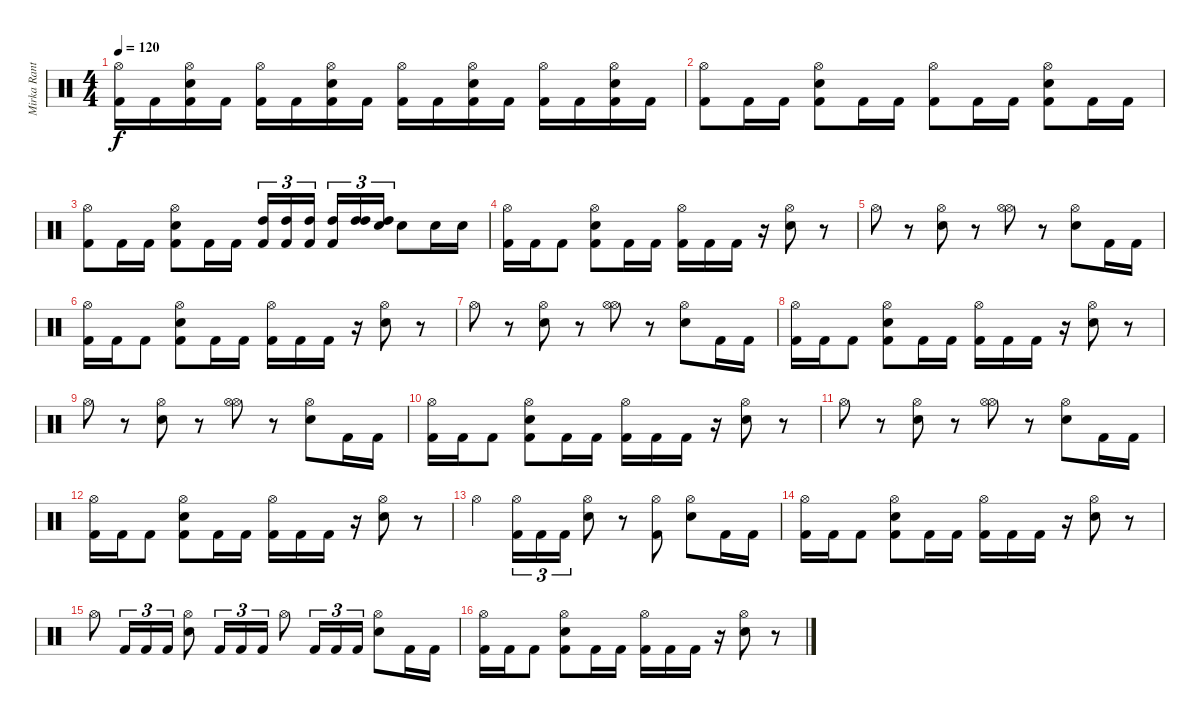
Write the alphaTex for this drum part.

\track ("Mirka Rantanen" "Mirka Rant") {instrument percussion}
\staff {score}
\articulation defaults
\ts (4 4)
\tempo 120
\clef neutral
\ks c
("Hi-Hat (open)" "Kick (hit) 2").16{dy f} "Kick (hit) 2".16 ("Hi-Hat (open)" "Snare (hit) 2" "Kick (hit) 2").16 "Kick (hit) 2".16 ("Hi-Hat (open)" "Kick (hit) 2").16 "Kick (hit) 2".16 ("Hi-Hat (open)" "Snare (hit) 2" "Kick (hit) 2").16 "Kick (hit) 2".16 ("Hi-Hat (open)" "Kick (hit) 2").16 "Kick (hit) 2".16 ("Hi-Hat (open)" "Snare (hit) 2" "Kick (hit) 2").16 "Kick (hit) 2".16 ("Hi-Hat (open)" "Kick (hit) 2").16 "Kick (hit) 2".16 ("Hi-Hat (open)" "Snare (hit) 2" "Kick (hit) 2").16 "Kick (hit) 2".16 |
("Hi-Hat (open)" "Kick (hit) 2").8 "Kick (hit) 2".16 "Kick (hit) 2".16 ("Hi-Hat (open)" "Snare (hit) 2" "Kick (hit) 2").8 "Kick (hit) 2".16 "Kick (hit) 2".16 ("Hi-Hat (open)" "Kick (hit) 2").8 "Kick (hit) 2".16 "Kick (hit) 2".16 ("Hi-Hat (open)" "Snare (hit) 2" "Kick (hit) 2").8 "Kick (hit) 2".16 "Kick (hit) 2".16 |
("Hi-Hat (open)" "Kick (hit) 2").8 "Kick (hit) 2".16 "Kick (hit) 2".16 ("Hi-Hat (open)" "Snare (hit) 2" "Kick (hit) 2").8 "Kick (hit) 2".16 "Kick (hit) 2".16 ("Kick (hit) 2" "High Tom (hit)").16{tu (3 2)} ("Kick (hit) 2" "High Tom (hit)").16{tu (3 2)} ("Kick (hit) 2" "High Tom (hit)").16{tu (3 2)} ("Kick (hit) 2" "High Tom (hit)").16{tu (3 2)} ("High Tom (hit)" "High Tom (hit)").16{tu (3 2)} ("High Tom (hit)" "Snare (hit) 2").16{tu (3 2)} "Snare (hit) 2".8 "Snare (hit) 2".16 "Snare (hit) 2".16 |
("Hi-Hat (open)" "Kick (hit) 2").16 "Kick (hit) 2".16 "Kick (hit) 2".8 ("Hi-Hat (open)" "Snare (hit) 2" "Kick (hit) 2").8 "Kick (hit) 2".16 "Kick (hit) 2".16 ("Hi-Hat (open)" "Kick (hit) 2").16 "Kick (hit) 2".16 "Kick (hit) 2".16 r.16 ("Hi-Hat (open)" "Snare (hit) 2").8 r.8 |
"Hi-Hat (open)".8 r.8 ("Snare (hit) 2" "Hi-Hat (open)").8 r.8 ("Hi-Hat (open)" "Hi-Hat (open)").8 r.8 ("Snare (hit) 2" "Hi-Hat (open)").8 "Kick (hit) 2".16 "Kick (hit) 2".16 |
("Hi-Hat (open)" "Kick (hit) 2").16 "Kick (hit) 2".16 "Kick (hit) 2".8 ("Hi-Hat (open)" "Snare (hit) 2" "Kick (hit) 2").8 "Kick (hit) 2".16 "Kick (hit) 2".16 ("Hi-Hat (open)" "Kick (hit) 2").16 "Kick (hit) 2".16 "Kick (hit) 2".16 r.16 ("Hi-Hat (open)" "Snare (hit) 2").8 r.8 |
"Hi-Hat (open)".8 r.8 ("Snare (hit) 2" "Hi-Hat (open)").8 r.8 ("Hi-Hat (open)" "Hi-Hat (open)").8 r.8 ("Snare (hit) 2" "Hi-Hat (open)").8 "Kick (hit) 2".16 "Kick (hit) 2".16 |
("Hi-Hat (open)" "Kick (hit) 2").16 "Kick (hit) 2".16 "Kick (hit) 2".8 ("Hi-Hat (open)" "Snare (hit) 2" "Kick (hit) 2").8 "Kick (hit) 2".16 "Kick (hit) 2".16 ("Hi-Hat (open)" "Kick (hit) 2").16 "Kick (hit) 2".16 "Kick (hit) 2".16 r.16 ("Hi-Hat (open)" "Snare (hit) 2").8 r.8 |
"Hi-Hat (open)".8 r.8 ("Snare (hit) 2" "Hi-Hat (open)").8 r.8 ("Hi-Hat (open)" "Hi-Hat (open)").8 r.8 ("Snare (hit) 2" "Hi-Hat (open)").8 "Kick (hit) 2".16 "Kick (hit) 2".16 |
("Hi-Hat (open)" "Kick (hit) 2").16 "Kick (hit) 2".16 "Kick (hit) 2".8 ("Hi-Hat (open)" "Snare (hit) 2" "Kick (hit) 2").8 "Kick (hit) 2".16 "Kick (hit) 2".16 ("Hi-Hat (open)" "Kick (hit) 2").16 "Kick (hit) 2".16 "Kick (hit) 2".16 r.16 ("Hi-Hat (open)" "Snare (hit) 2").8 r.8 |
"Hi-Hat (open)".8 r.8 ("Snare (hit) 2" "Hi-Hat (open)").8 r.8 ("Hi-Hat (open)" "Hi-Hat (open)").8 r.8 ("Snare (hit) 2" "Hi-Hat (open)").8 "Kick (hit) 2".16 "Kick (hit) 2".16 |
("Hi-Hat (open)" "Kick (hit) 2").16 "Kick (hit) 2".16 "Kick (hit) 2".8 ("Hi-Hat (open)" "Snare (hit) 2" "Kick (hit) 2").8 "Kick (hit) 2".16 "Kick (hit) 2".16 ("Hi-Hat (open)" "Kick (hit) 2").16 "Kick (hit) 2".16 "Kick (hit) 2".16 r.16 ("Hi-Hat (open)" "Snare (hit) 2").8 r.8 |
"Hi-Hat (open)".4 ("Hi-Hat (open)" "Kick (hit) 2").16{tu (3 2)} "Kick (hit) 2".16{tu (3 2)} "Kick (hit) 2".16{tu (3 2)} ("Hi-Hat (open)" "Snare (hit) 2").8 r.8 ("Hi-Hat (open)" "Kick (hit) 2").8 ("Hi-Hat (open)" "Snare (hit) 2").8 "Kick (hit) 2".16 "Kick (hit) 2".16 |
("Hi-Hat (open)" "Kick (hit) 2").16 "Kick (hit) 2".16 "Kick (hit) 2".8 ("Hi-Hat (open)" "Snare (hit) 2" "Kick (hit) 2").8 "Kick (hit) 2".16 "Kick (hit) 2".16 ("Hi-Hat (open)" "Kick (hit) 2").16 "Kick (hit) 2".16 "Kick (hit) 2".16 r.16 ("Hi-Hat (open)" "Snare (hit) 2").8 r.8 |
"Hi-Hat (open)".8 "Kick (hit) 2".16{tu (3 2)} "Kick (hit) 2".16{tu (3 2)} "Kick (hit) 2".16{tu (3 2)} ("Snare (hit) 2" "Hi-Hat (open)").8 "Kick (hit) 2".16{tu (3 2)} "Kick (hit) 2".16{tu (3 2)} "Kick (hit) 2".16{tu (3 2)} "Hi-Hat (open)".8 "Kick (hit) 2".16{tu (3 2)} "Kick (hit) 2".16{tu (3 2)} "Kick (hit) 2".16{tu (3 2)} ("Hi-Hat (open)" "Snare (hit) 2").8 "Kick (hit) 2".16 "Kick (hit) 2".16 |
("Hi-Hat (open)" "Kick (hit) 2").16 "Kick (hit) 2".16 "Kick (hit) 2".8 ("Hi-Hat (open)" "Snare (hit) 2" "Kick (hit) 2").8 "Kick (hit) 2".16 "Kick (hit) 2".16 ("Hi-Hat (open)" "Kick (hit) 2").16 "Kick (hit) 2".16 "Kick (hit) 2".16 r.16 ("Hi-Hat (open)" "Snare (hit) 2").8 r.8
